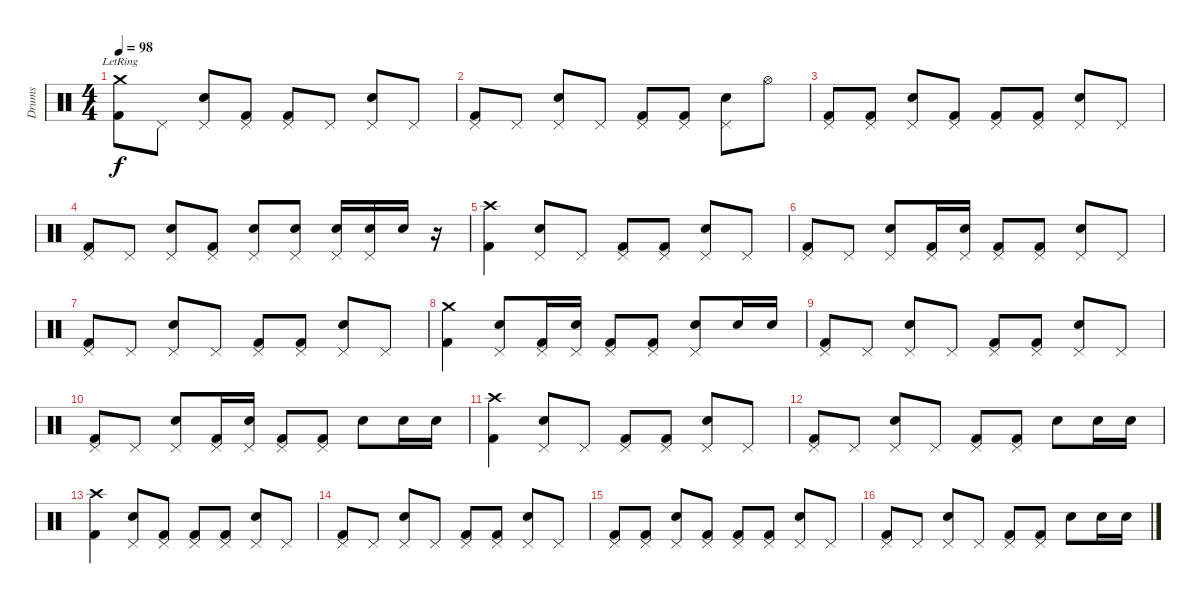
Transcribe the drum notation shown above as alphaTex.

\track ("Drums" "Drums") {instrument percussion}
\staff {score}
\articulation defaults
\ts (4 4)
\tempo 98
\clef neutral
\ks c
("Crash medium (hit)"{lr} "Kick (hit) 2").8{dy f} "Pedal Hi-Hat (hit)".8 ("Pedal Hi-Hat (hit)" "Snare (hit) 2").8 ("Pedal Hi-Hat (hit)" "Kick (hit) 2").8 ("Pedal Hi-Hat (hit)" "Kick (hit) 2").8 "Pedal Hi-Hat (hit)".8 ("Pedal Hi-Hat (hit)" "Snare (hit) 2").8 "Pedal Hi-Hat (hit)".8 |
("Pedal Hi-Hat (hit)" "Kick (hit) 2").8 "Pedal Hi-Hat (hit)".8 ("Pedal Hi-Hat (hit)" "Snare (hit) 2").8 "Pedal Hi-Hat (hit)".8 ("Pedal Hi-Hat (hit)" "Kick (hit) 2").8 ("Pedal Hi-Hat (hit)" "Kick (hit) 2").8 ("Pedal Hi-Hat (hit)" "Snare (hit) 2").8 "Hi-Hat (open)".8 |
("Pedal Hi-Hat (hit)" "Kick (hit) 2").8 ("Pedal Hi-Hat (hit)" "Kick (hit) 2").8 ("Pedal Hi-Hat (hit)" "Snare (hit) 2").8 ("Pedal Hi-Hat (hit)" "Kick (hit) 2").8 ("Pedal Hi-Hat (hit)" "Kick (hit) 2").8 ("Pedal Hi-Hat (hit)" "Kick (hit) 2").8 ("Pedal Hi-Hat (hit)" "Snare (hit) 2").8 "Pedal Hi-Hat (hit)".8 |
("Pedal Hi-Hat (hit)" "Kick (hit) 2").8 "Pedal Hi-Hat (hit)".8 ("Pedal Hi-Hat (hit)" "Snare (hit) 2").8 ("Pedal Hi-Hat (hit)" "Kick (hit) 2").8 ("Pedal Hi-Hat (hit)" "Snare (hit) 2").8 ("Pedal Hi-Hat (hit)" "Snare (hit) 2").8 ("Pedal Hi-Hat (hit)" "Snare (hit) 2").16 ("Pedal Hi-Hat (hit)" "Snare (hit) 2").16 "Snare (hit) 2".16 r.16 |
("Crash high (hit)" "Kick (hit) 2").4 ("Pedal Hi-Hat (hit)" "Snare (hit) 2").8 "Pedal Hi-Hat (hit)".8 ("Pedal Hi-Hat (hit)" "Kick (hit) 2").8 ("Pedal Hi-Hat (hit)" "Kick (hit) 2").8 ("Pedal Hi-Hat (hit)" "Snare (hit) 2").8 "Pedal Hi-Hat (hit)".8 |
("Pedal Hi-Hat (hit)" "Kick (hit) 2").8 "Pedal Hi-Hat (hit)".8 ("Pedal Hi-Hat (hit)" "Snare (hit) 2").8 ("Pedal Hi-Hat (hit)" "Kick (hit) 2").16 ("Pedal Hi-Hat (hit)" "Snare (hit) 2").16 ("Pedal Hi-Hat (hit)" "Kick (hit) 2").8 ("Pedal Hi-Hat (hit)" "Kick (hit) 2").8 ("Pedal Hi-Hat (hit)" "Snare (hit) 2").8 "Pedal Hi-Hat (hit)".8 |
("Pedal Hi-Hat (hit)" "Kick (hit) 2").8 "Pedal Hi-Hat (hit)".8 ("Pedal Hi-Hat (hit)" "Snare (hit) 2").8 "Pedal Hi-Hat (hit)".8 ("Pedal Hi-Hat (hit)" "Kick (hit) 2").8 ("Pedal Hi-Hat (hit)" "Kick (hit) 2").8 ("Pedal Hi-Hat (hit)" "Snare (hit) 2").8 "Pedal Hi-Hat (hit)".8 |
("Crash medium (hit)" "Kick (hit) 2").4 ("Pedal Hi-Hat (hit)" "Snare (hit) 2").8 ("Pedal Hi-Hat (hit)" "Kick (hit) 2").16 ("Pedal Hi-Hat (hit)" "Snare (hit) 2").16 ("Pedal Hi-Hat (hit)" "Kick (hit) 2").8 ("Pedal Hi-Hat (hit)" "Kick (hit) 2").8 ("Pedal Hi-Hat (hit)" "Snare (hit) 2").8 "Snare (hit) 2".16 "Snare (hit) 2".16 |
("Pedal Hi-Hat (hit)" "Kick (hit) 2").8 "Pedal Hi-Hat (hit)".8 ("Pedal Hi-Hat (hit)" "Snare (hit) 2").8 "Pedal Hi-Hat (hit)".8 ("Pedal Hi-Hat (hit)" "Kick (hit) 2").8 ("Pedal Hi-Hat (hit)" "Kick (hit) 2").8 ("Pedal Hi-Hat (hit)" "Snare (hit) 2").8 "Pedal Hi-Hat (hit)".8 |
("Pedal Hi-Hat (hit)" "Kick (hit) 2").8 "Pedal Hi-Hat (hit)".8 ("Pedal Hi-Hat (hit)" "Snare (hit) 2").8 ("Pedal Hi-Hat (hit)" "Kick (hit) 2").16 ("Pedal Hi-Hat (hit)" "Snare (hit) 2").16 ("Pedal Hi-Hat (hit)" "Kick (hit) 2").8 ("Pedal Hi-Hat (hit)" "Kick (hit) 2").8 "Snare (hit) 2".8 "Snare (hit) 2".16 "Snare (hit) 2".16 |
("Crash high (hit)" "Kick (hit) 2").4 ("Pedal Hi-Hat (hit)" "Snare (hit) 2").8 "Pedal Hi-Hat (hit)".8 ("Pedal Hi-Hat (hit)" "Kick (hit) 2").8 ("Pedal Hi-Hat (hit)" "Kick (hit) 2").8 ("Pedal Hi-Hat (hit)" "Snare (hit) 2").8 "Pedal Hi-Hat (hit)".8 |
("Pedal Hi-Hat (hit)" "Kick (hit) 2").8 "Pedal Hi-Hat (hit)".8 ("Pedal Hi-Hat (hit)" "Snare (hit) 2").8 "Pedal Hi-Hat (hit)".8 ("Pedal Hi-Hat (hit)" "Kick (hit) 2").8 ("Pedal Hi-Hat (hit)" "Kick (hit) 2").8 "Snare (hit) 2".8 "Snare (hit) 2".16 "Snare (hit) 2".16 |
("Crash high (hit)" "Kick (hit) 2").4 ("Pedal Hi-Hat (hit)" "Snare (hit) 2").8 ("Pedal Hi-Hat (hit)" "Kick (hit) 2").8 ("Pedal Hi-Hat (hit)" "Kick (hit) 2").8 ("Pedal Hi-Hat (hit)" "Kick (hit) 2").8 ("Pedal Hi-Hat (hit)" "Snare (hit) 2").8 "Pedal Hi-Hat (hit)".8 |
("Pedal Hi-Hat (hit)" "Kick (hit) 2").8 "Pedal Hi-Hat (hit)".8 ("Pedal Hi-Hat (hit)" "Snare (hit) 2").8 "Pedal Hi-Hat (hit)".8 ("Pedal Hi-Hat (hit)" "Kick (hit) 2").8 ("Pedal Hi-Hat (hit)" "Kick (hit) 2").8 ("Pedal Hi-Hat (hit)" "Snare (hit) 2").8 "Pedal Hi-Hat (hit)".8 |
("Pedal Hi-Hat (hit)" "Kick (hit) 2").8 ("Pedal Hi-Hat (hit)" "Kick (hit) 2").8 ("Pedal Hi-Hat (hit)" "Snare (hit) 2").8 ("Pedal Hi-Hat (hit)" "Kick (hit) 2").8 ("Pedal Hi-Hat (hit)" "Kick (hit) 2").8 ("Pedal Hi-Hat (hit)" "Kick (hit) 2").8 ("Pedal Hi-Hat (hit)" "Snare (hit) 2").8 "Pedal Hi-Hat (hit)".8 |
("Pedal Hi-Hat (hit)" "Kick (hit) 2").8 "Pedal Hi-Hat (hit)".8 ("Pedal Hi-Hat (hit)" "Snare (hit) 2").8 "Pedal Hi-Hat (hit)".8 ("Pedal Hi-Hat (hit)" "Kick (hit) 2").8 ("Pedal Hi-Hat (hit)" "Kick (hit) 2").8 "Snare (hit) 2".8 "Snare (hit) 2".16 "Snare (hit) 2".16
